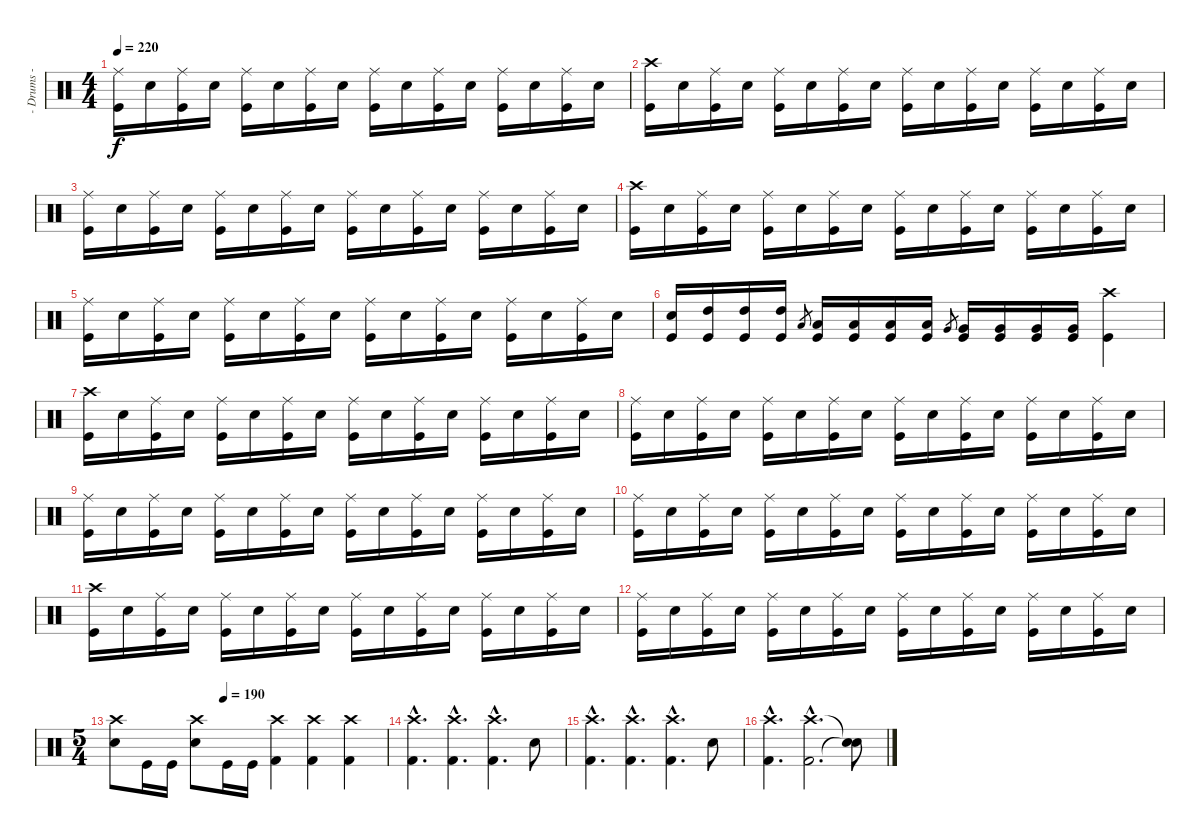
\track ("- Drums -" "- Drums -") {instrument percussion}
\staff {score}
\articulation defaults
\ts (4 4)
\tempo 220
\clef neutral
\ks c
("Ride (middle)" "Kick (hit)").16{dy f} "Electric Snare (hit)".16 ("Ride (middle)" "Kick (hit)").16 "Electric Snare (hit)".16 ("Ride (middle)" "Kick (hit)").16 "Electric Snare (hit)".16 ("Ride (middle)" "Kick (hit)").16 "Electric Snare (hit)".16 ("Ride (middle)" "Kick (hit)").16 "Electric Snare (hit)".16 ("Ride (middle)" "Kick (hit)").16 "Electric Snare (hit)".16 ("Ride (middle)" "Kick (hit)").16 "Electric Snare (hit)".16 ("Ride (middle)" "Kick (hit)").16 "Electric Snare (hit)".16 |
("Crash high (hit)" "Kick (hit)").16 "Electric Snare (hit)".16 ("Ride (middle)" "Kick (hit)").16 "Electric Snare (hit)".16 ("Ride (middle)" "Kick (hit)").16 "Electric Snare (hit)".16 ("Ride (middle)" "Kick (hit)").16 "Electric Snare (hit)".16 ("Ride (middle)" "Kick (hit)").16 "Electric Snare (hit)".16 ("Ride (middle)" "Kick (hit)").16 "Electric Snare (hit)".16 ("Ride (middle)" "Kick (hit)").16 "Electric Snare (hit)".16 ("Ride (middle)" "Kick (hit)").16 "Electric Snare (hit)".16 |
("Ride (middle)" "Kick (hit)").16 "Electric Snare (hit)".16 ("Ride (middle)" "Kick (hit)").16 "Electric Snare (hit)".16 ("Ride (middle)" "Kick (hit)").16 "Electric Snare (hit)".16 ("Ride (middle)" "Kick (hit)").16 "Electric Snare (hit)".16 ("Ride (middle)" "Kick (hit)").16 "Electric Snare (hit)".16 ("Ride (middle)" "Kick (hit)").16 "Electric Snare (hit)".16 ("Ride (middle)" "Kick (hit)").16 "Electric Snare (hit)".16 ("Ride (middle)" "Kick (hit)").16 "Electric Snare (hit)".16 |
("Crash high (hit)" "Kick (hit)").16 "Electric Snare (hit)".16 ("Ride (middle)" "Kick (hit)").16 "Electric Snare (hit)".16 ("Ride (middle)" "Kick (hit)").16 "Electric Snare (hit)".16 ("Ride (middle)" "Kick (hit)").16 "Electric Snare (hit)".16 ("Ride (middle)" "Kick (hit)").16 "Electric Snare (hit)".16 ("Ride (middle)" "Kick (hit)").16 "Electric Snare (hit)".16 ("Ride (middle)" "Kick (hit)").16 "Electric Snare (hit)".16 ("Ride (middle)" "Kick (hit)").16 "Electric Snare (hit)".16 |
("Ride (middle)" "Kick (hit)").16 "Electric Snare (hit)".16 ("Ride (middle)" "Kick (hit)").16 "Electric Snare (hit)".16 ("Ride (middle)" "Kick (hit)").16 "Electric Snare (hit)".16 ("Ride (middle)" "Kick (hit)").16 "Electric Snare (hit)".16 ("Ride (middle)" "Kick (hit)").16 "Electric Snare (hit)".16 ("Ride (middle)" "Kick (hit)").16 "Electric Snare (hit)".16 ("Ride (middle)" "Kick (hit)").16 "Electric Snare (hit)".16 ("Ride (middle)" "Kick (hit)").16 "Electric Snare (hit)".16 |
("Electric Snare (hit)" "Kick (hit)").16 ("High Tom (hit)" "Kick (hit)").16 ("High Tom (hit)" "Kick (hit)").16 ("High Tom (hit)" "Kick (hit)").16 "Low Tom (hit)".8{gr} ("Low Tom (hit)" "Kick (hit)").16 ("Low Tom (hit)" "Kick (hit)").16 ("Low Tom (hit)" "Kick (hit)").16 ("Low Tom (hit)" "Kick (hit)").16 "Very Low Tom (hit)".8{gr} ("Very Low Tom (hit)" "Kick (hit)").16 ("Very Low Tom (hit)" "Kick (hit)").16 ("Very Low Tom (hit)" "Kick (hit)").16 ("Very Low Tom (hit)" "Kick (hit)").16 ("Crash high (hit)" "Kick (hit)").4 |
("Crash high (hit)" "Kick (hit)").16 "Electric Snare (hit)".16 ("Ride (middle)" "Kick (hit)").16 "Electric Snare (hit)".16 ("Ride (middle)" "Kick (hit)").16 "Electric Snare (hit)".16 ("Ride (middle)" "Kick (hit)").16 "Electric Snare (hit)".16 ("Ride (middle)" "Kick (hit)").16 "Electric Snare (hit)".16 ("Ride (middle)" "Kick (hit)").16 "Electric Snare (hit)".16 ("Ride (middle)" "Kick (hit)").16 "Electric Snare (hit)".16 ("Ride (middle)" "Kick (hit)").16 "Electric Snare (hit)".16 |
("Ride (middle)" "Kick (hit)").16 "Electric Snare (hit)".16 ("Ride (middle)" "Kick (hit)").16 "Electric Snare (hit)".16 ("Ride (middle)" "Kick (hit)").16 "Electric Snare (hit)".16 ("Ride (middle)" "Kick (hit)").16 "Electric Snare (hit)".16 ("Ride (middle)" "Kick (hit)").16 "Electric Snare (hit)".16 ("Ride (middle)" "Kick (hit)").16 "Electric Snare (hit)".16 ("Ride (middle)" "Kick (hit)").16 "Electric Snare (hit)".16 ("Ride (middle)" "Kick (hit)").16 "Electric Snare (hit)".16 |
("Ride (middle)" "Kick (hit)").16 "Electric Snare (hit)".16 ("Ride (middle)" "Kick (hit)").16 "Electric Snare (hit)".16 ("Ride (middle)" "Kick (hit)").16 "Electric Snare (hit)".16 ("Ride (middle)" "Kick (hit)").16 "Electric Snare (hit)".16 ("Ride (middle)" "Kick (hit)").16 "Electric Snare (hit)".16 ("Ride (middle)" "Kick (hit)").16 "Electric Snare (hit)".16 ("Ride (middle)" "Kick (hit)").16 "Electric Snare (hit)".16 ("Ride (middle)" "Kick (hit)").16 "Electric Snare (hit)".16 |
("Ride (middle)" "Kick (hit)").16 "Electric Snare (hit)".16 ("Ride (middle)" "Kick (hit)").16 "Electric Snare (hit)".16 ("Ride (middle)" "Kick (hit)").16 "Electric Snare (hit)".16 ("Ride (middle)" "Kick (hit)").16 "Electric Snare (hit)".16 ("Ride (middle)" "Kick (hit)").16 "Electric Snare (hit)".16 ("Ride (middle)" "Kick (hit)").16 "Electric Snare (hit)".16 ("Ride (middle)" "Kick (hit)").16 "Electric Snare (hit)".16 ("Ride (middle)" "Kick (hit)").16 "Electric Snare (hit)".16 |
("Crash high (hit)" "Kick (hit)").16 "Electric Snare (hit)".16 ("Ride (middle)" "Kick (hit)").16 "Electric Snare (hit)".16 ("Ride (middle)" "Kick (hit)").16 "Electric Snare (hit)".16 ("Ride (middle)" "Kick (hit)").16 "Electric Snare (hit)".16 ("Ride (middle)" "Kick (hit)").16 "Electric Snare (hit)".16 ("Ride (middle)" "Kick (hit)").16 "Electric Snare (hit)".16 ("Ride (middle)" "Kick (hit)").16 "Electric Snare (hit)".16 ("Ride (middle)" "Kick (hit)").16 "Electric Snare (hit)".16 |
("Ride (middle)" "Kick (hit)").16 "Electric Snare (hit)".16 ("Ride (middle)" "Kick (hit)").16 "Electric Snare (hit)".16 ("Ride (middle)" "Kick (hit)").16 "Electric Snare (hit)".16 ("Ride (middle)" "Kick (hit)").16 "Electric Snare (hit)".16 ("Ride (middle)" "Kick (hit)").16 "Electric Snare (hit)".16 ("Ride (middle)" "Kick (hit)").16 "Electric Snare (hit)".16 ("Ride (middle)" "Kick (hit)").16 "Electric Snare (hit)".16 ("Ride (middle)" "Kick (hit)").16 "Electric Snare (hit)".16 |
\ts (5 4)
\tempo (190 0.4)
("Crash high (hit)" "Electric Snare (hit)").8 "Kick (hit)".16 "Kick (hit)".16 ("Crash high (hit)" "Electric Snare (hit)").8 "Kick (hit)".16 "Kick (hit)".16 ("Crash high (hit)" "Kick (hit) 2").4 ("Crash high (hit)" "Kick (hit) 2").4 ("Crash high (hit)" "Kick (hit) 2").4 |
("Crash high (hit)"{hac} "Kick (hit) 2"{hac}).4{d} ("Crash high (hit)"{hac} "Kick (hit) 2"{hac}).4{d} ("Crash high (hit)"{hac} "Kick (hit) 2"{hac}).4{d} "Electric Snare (hit)".8 |
("Crash high (hit)"{hac} "Kick (hit) 2"{hac}).4{d} ("Crash high (hit)"{hac} "Kick (hit) 2"{hac}).4{d} ("Crash high (hit)"{hac} "Kick (hit) 2"{hac}).4{d} "Electric Snare (hit)".8 |
("Crash high (hit)"{hac} "Kick (hit) 2"{hac}).4{d} ("Crash high (hit)"{hac} "Kick (hit) 2"{hac}).2{d} ("Snare (hit)"{t} "Snare (hit)"{t}).8
